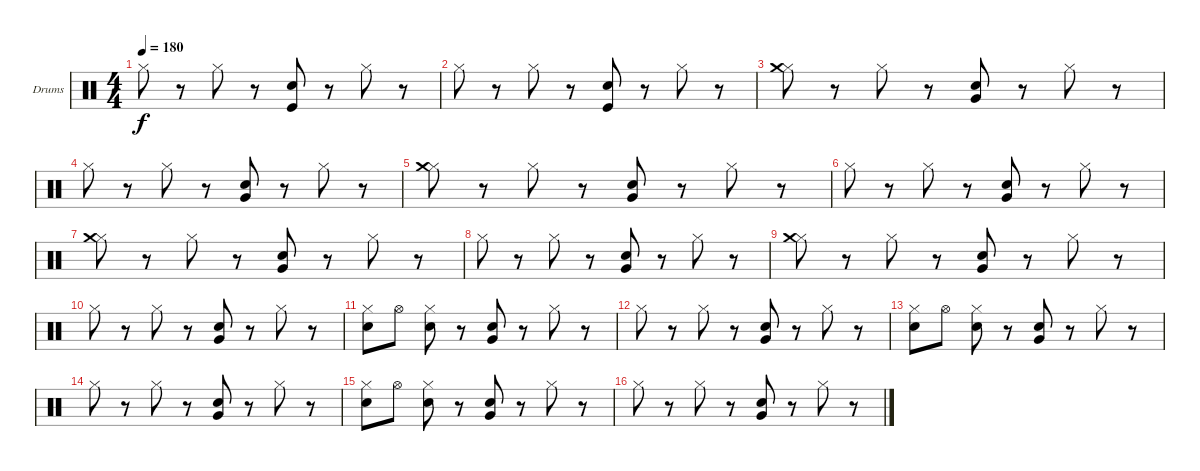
\bracketExtendMode groupsimilarinstruments
\firstSystemTrackNameOrientation horizontal
\otherSystemsTrackNameOrientation horizontal
\track ("Drumkit" "Drums") {instrument percussion}
\staff {score}
\articulation defaults
\ts (4 4)
\tempo 180
\clef neutral
\ks c "Hi-Hat (closed)".8{dy f}
r.8 "Hi-Hat (closed)".8 r.8 ("Snare (hit) 2" "Kick (hit)").8 r.8 "Hi-Hat (closed)".8 r.8 |
"Hi-Hat (closed)".8 r.8 "Hi-Hat (closed)".8 r.8 ("Snare (hit) 2" "Kick (hit)").8 r.8 "Hi-Hat (closed)".8 r.8 |
("Hi-Hat (closed)" "Crash medium (hit)").8 r.8 "Hi-Hat (closed)".8 r.8 ("Snare (hit) 2" "Very Low Tom (hit)").8 r.8 "Hi-Hat (closed)".8 r.8 |
"Hi-Hat (closed)".8 r.8 "Hi-Hat (closed)".8 r.8 ("Snare (hit) 2" "Very Low Tom (hit)").8 r.8 "Hi-Hat (closed)".8 r.8 |
("Hi-Hat (closed)" "Crash medium (hit)").8 r.8 "Hi-Hat (closed)".8 r.8 ("Snare (hit) 2" "Very Low Tom (hit)").8 r.8 "Hi-Hat (closed)".8 r.8 |
"Hi-Hat (closed)".8 r.8 "Hi-Hat (closed)".8 r.8 ("Snare (hit) 2" "Very Low Tom (hit)").8 r.8 "Hi-Hat (closed)".8 r.8 |
("Hi-Hat (closed)" "Crash medium (hit)").8 r.8 "Hi-Hat (closed)".8 r.8 ("Snare (hit) 2" "Very Low Tom (hit)").8 r.8 "Hi-Hat (closed)".8 r.8 |
"Hi-Hat (closed)".8 r.8 "Hi-Hat (closed)".8 r.8 ("Snare (hit) 2" "Very Low Tom (hit)").8 r.8 "Hi-Hat (closed)".8 r.8 |
("Hi-Hat (closed)" "Crash medium (hit)").8 r.8 "Hi-Hat (closed)".8 r.8 ("Snare (hit) 2" "Very Low Tom (hit)").8 r.8 "Hi-Hat (closed)".8 r.8 |
"Hi-Hat (closed)".8 r.8 "Hi-Hat (closed)".8 r.8 ("Snare (hit) 2" "Very Low Tom (hit)").8 r.8 "Hi-Hat (closed)".8 r.8 |
("Hi-Hat (closed)" "Snare (hit) 2").8 "Hi-Hat (open)".8 ("Hi-Hat (closed)" "Snare (hit) 2").8 r.8 ("Snare (hit) 2" "Very Low Tom (hit)").8 r.8 "Hi-Hat (closed)".8 r.8 |
"Hi-Hat (closed)".8 r.8 "Hi-Hat (closed)".8 r.8 ("Snare (hit) 2" "Very Low Tom (hit)").8 r.8 "Hi-Hat (closed)".8 r.8 |
("Hi-Hat (closed)" "Snare (hit) 2").8 "Hi-Hat (open)".8 ("Hi-Hat (closed)" "Snare (hit) 2").8 r.8 ("Snare (hit) 2" "Very Low Tom (hit)").8 r.8 "Hi-Hat (closed)".8 r.8 |
"Hi-Hat (closed)".8 r.8 "Hi-Hat (closed)".8 r.8 ("Snare (hit) 2" "Very Low Tom (hit)").8 r.8 "Hi-Hat (closed)".8 r.8 |
("Hi-Hat (closed)" "Snare (hit) 2").8 "Hi-Hat (open)".8 ("Hi-Hat (closed)" "Snare (hit) 2").8 r.8 ("Snare (hit) 2" "Very Low Tom (hit)").8 r.8 "Hi-Hat (closed)".8 r.8 |
"Hi-Hat (closed)".8 r.8 "Hi-Hat (closed)".8 r.8 ("Snare (hit) 2" "Very Low Tom (hit)").8 r.8 "Hi-Hat (closed)".8 r.8
